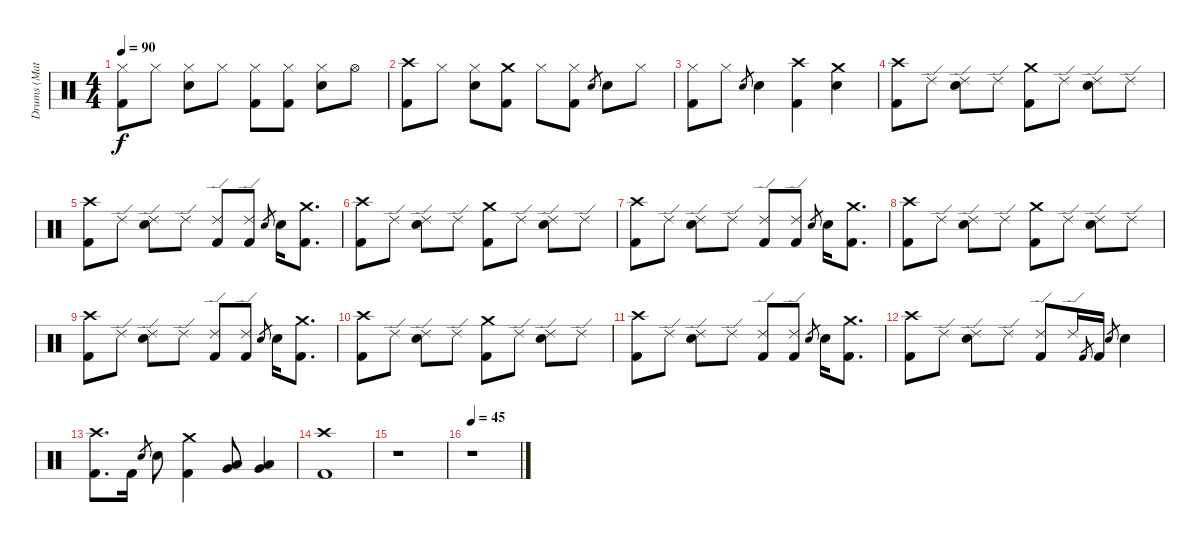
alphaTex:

\track ("Drums (Matt)" "Drums (Mat") {instrument percussion}
\staff {score}
\articulation defaults
\ts (4 4)
\tempo 90
\clef neutral
\ks c
("Hi-Hat (closed)" "Kick (hit) 2").8{dy f} "Hi-Hat (closed)".8 ("Hi-Hat (closed)" "Snare (hit) 2").8 "Hi-Hat (closed)".8 ("Hi-Hat (closed)" "Kick (hit) 2").8 ("Hi-Hat (closed)" "Kick (hit) 2").8 ("Hi-Hat (closed)" "Snare (hit) 2").8 "Hi-Hat (open)".8 |
("Crash high (hit)" "Kick (hit) 2").8 "Hi-Hat (closed)".8 ("Hi-Hat (closed)" "Snare (hit) 2").8 ("Crash medium (hit)" "Kick (hit) 2").8 "Hi-Hat (closed)".8 ("Hi-Hat (closed)" "Kick (hit) 2").8 "Snare (hit) 2".8{gr} "Snare (hit) 2".8 "Hi-Hat (closed)".8 |
("Hi-Hat (closed)" "Kick (hit) 2").8 "Hi-Hat (closed)".8 "Snare (hit) 2".8{gr} "Snare (hit) 2".4 ("Crash high (hit)" "Kick (hit) 2").4 ("Crash medium (hit)" "Snare (hit) 2").4 |
("Crash high (hit)" "Kick (hit) 2").8 "Ride (edge) 2".8 ("Ride (edge) 2" "Snare (hit) 2").8 "Ride (edge) 2".8 ("Crash medium (hit)" "Kick (hit) 2").8 "Ride (edge) 2".8 ("Ride (edge) 2" "Snare (hit) 2").8 "Ride (edge) 2".8 |
("Crash high (hit)" "Kick (hit) 2").8 "Ride (edge) 2".8 ("Ride (edge) 2" "Snare (hit) 2").8 "Ride (edge) 2".8 ("Ride (edge) 2" "Kick (hit) 2").8 ("Ride (edge) 2" "Kick (hit) 2").8 "Snare (hit) 2".8{gr} "Snare (hit) 2".16 ("Crash medium (hit)" "Kick (hit) 2").8{d} |
("Crash high (hit)" "Kick (hit) 2").8 "Ride (edge) 2".8 ("Ride (edge) 2" "Snare (hit) 2").8 "Ride (edge) 2".8 ("Crash medium (hit)" "Kick (hit) 2").8 "Ride (edge) 2".8 ("Ride (edge) 2" "Snare (hit) 2").8 "Ride (edge) 2".8 |
("Crash high (hit)" "Kick (hit) 2").8 "Ride (edge) 2".8 ("Ride (edge) 2" "Snare (hit) 2").8 "Ride (edge) 2".8 ("Ride (edge) 2" "Kick (hit) 2").8 ("Ride (edge) 2" "Kick (hit) 2").8 "Snare (hit) 2".8{gr} "Snare (hit) 2".16 ("Crash medium (hit)" "Kick (hit) 2").8{d} |
("Crash high (hit)" "Kick (hit) 2").8 "Ride (edge) 2".8 ("Ride (edge) 2" "Snare (hit) 2").8 "Ride (edge) 2".8 ("Crash medium (hit)" "Kick (hit) 2").8 "Ride (edge) 2".8 ("Ride (edge) 2" "Snare (hit) 2").8 "Ride (edge) 2".8 |
("Crash high (hit)" "Kick (hit) 2").8 "Ride (edge) 2".8 ("Ride (edge) 2" "Snare (hit) 2").8 "Ride (edge) 2".8 ("Ride (edge) 2" "Kick (hit) 2").8 ("Ride (edge) 2" "Kick (hit) 2").8 "Snare (hit) 2".8{gr} "Snare (hit) 2".16 ("Crash medium (hit)" "Kick (hit) 2").8{d} |
("Crash high (hit)" "Kick (hit) 2").8 "Ride (edge) 2".8 ("Ride (edge) 2" "Snare (hit) 2").8 "Ride (edge) 2".8 ("Crash medium (hit)" "Kick (hit) 2").8 "Ride (edge) 2".8 ("Ride (edge) 2" "Snare (hit) 2").8 "Ride (edge) 2".8 |
("Crash high (hit)" "Kick (hit) 2").8 "Ride (edge) 2".8 ("Ride (edge) 2" "Snare (hit) 2").8 "Ride (edge) 2".8 ("Ride (edge) 2" "Kick (hit) 2").8 ("Ride (edge) 2" "Kick (hit) 2").8 "Snare (hit) 2".8{gr} "Snare (hit) 2".16 ("Crash medium (hit)" "Kick (hit) 2").8{d} |
("Crash high (hit)" "Kick (hit) 2").8 "Ride (edge) 2".8 ("Ride (edge) 2" "Snare (hit) 2").8 "Ride (edge) 2".8 ("Ride (edge) 2" "Kick (hit) 2").8 "Ride (edge) 2".16 "Kick (hit) 2".8{gr} "Kick (hit) 2".16 "Snare (hit) 2".8{gr} "Snare (hit) 2".4 |
("Crash high (hit)" "Kick (hit) 2").8{d} "Kick (hit) 2".16 "Snare (hit) 2".8{gr} "Snare (hit) 2".8 ("Crash medium (hit)" "Kick (hit) 2").4 ("Low Tom (hit)" "Very Low Tom (hit)").8 ("Low Tom (hit)" "Very Low Tom (hit)").4 |
("Crash high (hit)" "Kick (hit) 2").1 |
r.1 |
\tempo 45
r.1
